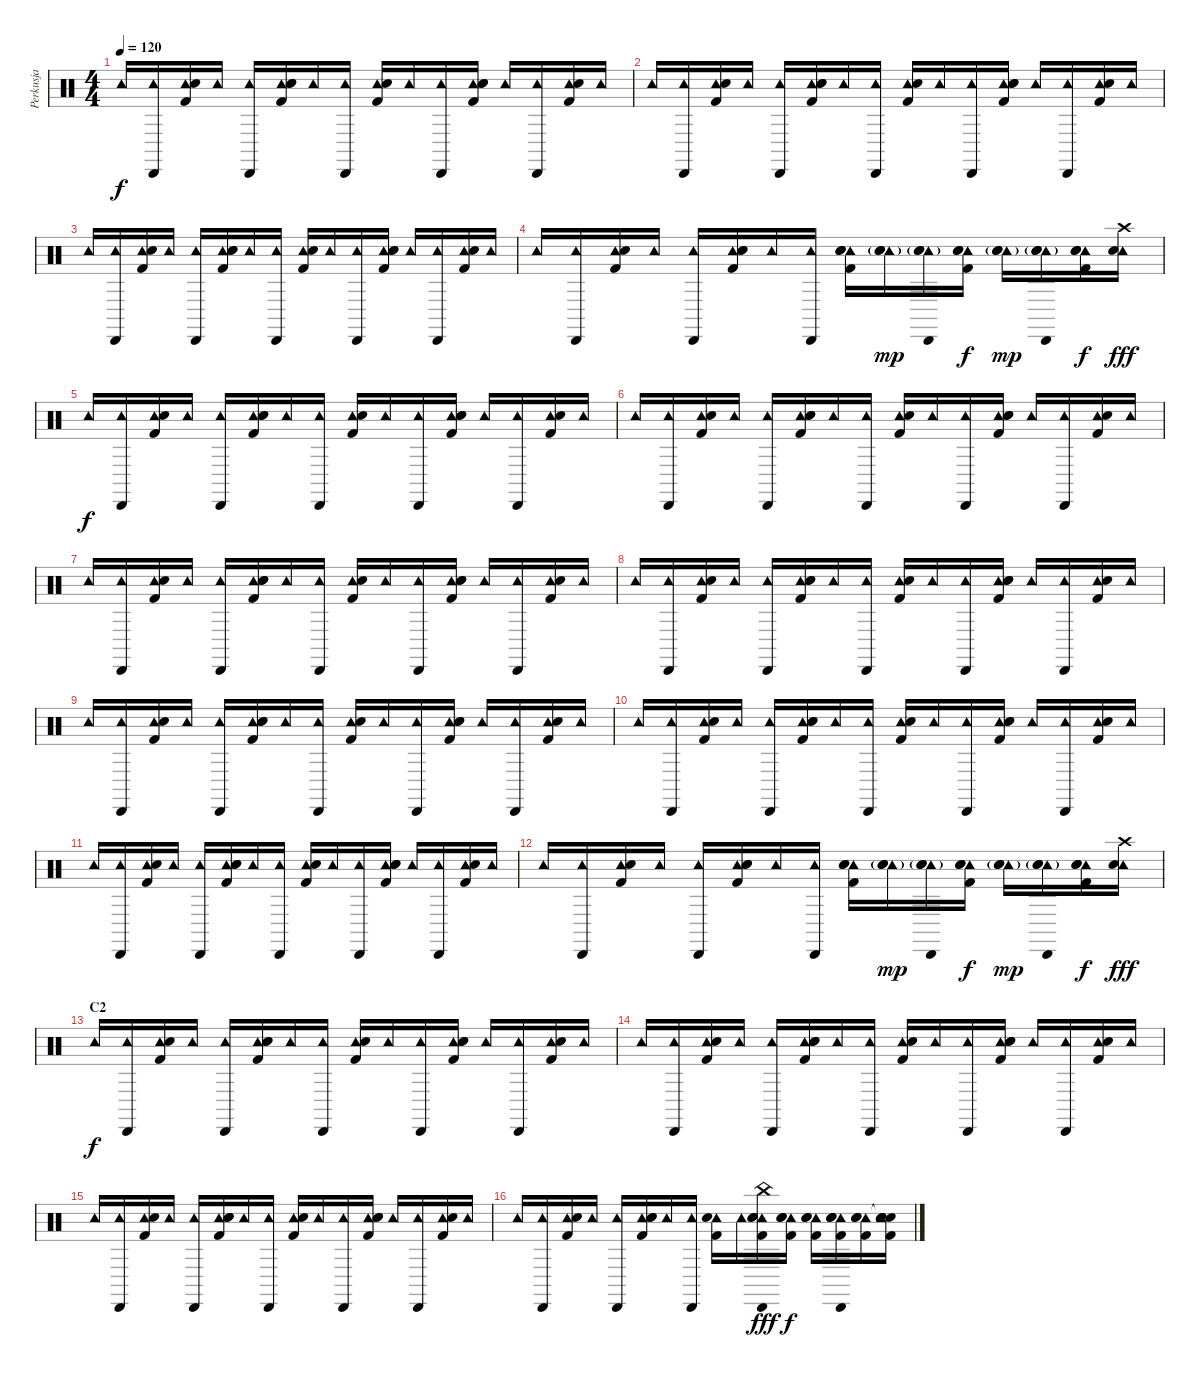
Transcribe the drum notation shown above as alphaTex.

\track ("Perkusja" "Perkusja") {instrument percussion}
\staff {score}
\articulation defaults
\ts (4 4)
\tempo 120
\clef neutral
\ks c "Tambourine (hit)".16{dy f}
("Tambourine (hit)" "Cabasa (hit)").16 ("Tambourine (hit)" "Kick (hit) 2" "Snare (hit) 2").16 "Tambourine (hit)".16 ("Tambourine (hit)" "Cabasa (hit)").16 ("Tambourine (hit)" "Kick (hit) 2" "Electric Snare (hit)" "Snare (hit) 2").16 "Tambourine (hit)".16 ("Tambourine (hit)" "Cabasa (hit)").16 ("Tambourine (hit)" "Kick (hit) 2" "Snare (hit) 2").16 "Tambourine (hit)".16 ("Tambourine (hit)" "Cabasa (hit)").16 ("Tambourine (hit)" "Kick (hit) 2" "Electric Snare (hit)" "Snare (hit) 2").16 "Tambourine (hit)".16 ("Tambourine (hit)" "Cabasa (hit)").16 ("Tambourine (hit)" "Kick (hit) 2" "Snare (hit) 2").16 "Tambourine (hit)".16 |
"Tambourine (hit)".16 ("Tambourine (hit)" "Cabasa (hit)").16 ("Tambourine (hit)" "Kick (hit) 2" "Snare (hit) 2").16 "Tambourine (hit)".16 ("Tambourine (hit)" "Cabasa (hit)").16 ("Tambourine (hit)" "Kick (hit) 2" "Electric Snare (hit)" "Snare (hit) 2").16 "Tambourine (hit)".16 ("Tambourine (hit)" "Cabasa (hit)").16 ("Tambourine (hit)" "Kick (hit) 2" "Snare (hit) 2").16 "Tambourine (hit)".16 ("Tambourine (hit)" "Cabasa (hit)").16 ("Tambourine (hit)" "Kick (hit) 2" "Electric Snare (hit)" "Snare (hit) 2").16 "Tambourine (hit)".16 ("Tambourine (hit)" "Cabasa (hit)").16 ("Tambourine (hit)" "Kick (hit) 2" "Snare (hit) 2").16 "Tambourine (hit)".16 |
"Tambourine (hit)".16 ("Tambourine (hit)" "Cabasa (hit)").16 ("Tambourine (hit)" "Kick (hit) 2" "Snare (hit) 2").16 "Tambourine (hit)".16 ("Tambourine (hit)" "Cabasa (hit)").16 ("Tambourine (hit)" "Kick (hit) 2" "Electric Snare (hit)" "Snare (hit) 2").16 "Tambourine (hit)".16 ("Tambourine (hit)" "Cabasa (hit)").16 ("Tambourine (hit)" "Kick (hit) 2" "Snare (hit) 2").16 "Tambourine (hit)".16 ("Tambourine (hit)" "Cabasa (hit)").16 ("Tambourine (hit)" "Kick (hit) 2" "Electric Snare (hit)" "Snare (hit) 2").16 "Tambourine (hit)".16 ("Tambourine (hit)" "Cabasa (hit)").16 ("Tambourine (hit)" "Kick (hit) 2" "Snare (hit) 2").16 "Tambourine (hit)".16 |
"Tambourine (hit)".16 ("Tambourine (hit)" "Cabasa (hit)").16 ("Tambourine (hit)" "Kick (hit) 2" "Snare (hit) 2").16 "Tambourine (hit)".16 ("Tambourine (hit)" "Cabasa (hit)").16 ("Tambourine (hit)" "Kick (hit) 2" "Electric Snare (hit)" "Snare (hit) 2").16 "Tambourine (hit)".16 ("Tambourine (hit)" "Cabasa (hit)").16 ("Tambourine (hit)" "Kick (hit) 2" "Snare (hit) 2" "Electric Snare (hit)").16 ("Tambourine (hit)" "Electric Snare (hit)"{g} "Electric Snare (hit)"{g}).16{dy mp} ("Tambourine (hit)" "Electric Snare (hit)"{g} "Electric Snare (hit)"{g} "Cabasa (hit)").16 ("Tambourine (hit)" "Kick (hit) 2" "Electric Snare (hit)" "Snare (hit) 2").16{dy f} ("Tambourine (hit)" "Electric Snare (hit)"{g} "Electric Snare (hit)"{g}).16{dy mp} ("Tambourine (hit)" "Electric Snare (hit)"{g} "Electric Snare (hit)"{g} "Cabasa (hit)").16 ("Tambourine (hit)" "Kick (hit) 2" "Snare (hit) 2" "Electric Snare (hit)").16{dy f} ("Tambourine (hit)" "Electric Snare (hit)" "Crash high (hit)").16{dy fff} |
"Tambourine (hit)".16{dy f} ("Tambourine (hit)" "Cabasa (hit)").16 ("Tambourine (hit)" "Kick (hit) 2" "Snare (hit) 2").16 "Tambourine (hit)".16 ("Tambourine (hit)" "Cabasa (hit)").16 ("Tambourine (hit)" "Kick (hit) 2" "Electric Snare (hit)" "Snare (hit) 2").16 "Tambourine (hit)".16 ("Tambourine (hit)" "Cabasa (hit)").16 ("Tambourine (hit)" "Kick (hit) 2" "Snare (hit) 2").16 "Tambourine (hit)".16 ("Tambourine (hit)" "Cabasa (hit)").16 ("Tambourine (hit)" "Kick (hit) 2" "Electric Snare (hit)" "Snare (hit) 2").16 "Tambourine (hit)".16 ("Tambourine (hit)" "Cabasa (hit)").16 ("Tambourine (hit)" "Kick (hit) 2" "Snare (hit) 2").16 "Tambourine (hit)".16 |
"Tambourine (hit)".16 ("Tambourine (hit)" "Cabasa (hit)").16 ("Tambourine (hit)" "Kick (hit) 2" "Snare (hit) 2").16 "Tambourine (hit)".16 ("Tambourine (hit)" "Cabasa (hit)").16 ("Tambourine (hit)" "Kick (hit) 2" "Electric Snare (hit)" "Snare (hit) 2").16 "Tambourine (hit)".16 ("Tambourine (hit)" "Cabasa (hit)").16 ("Tambourine (hit)" "Kick (hit) 2" "Snare (hit) 2").16 "Tambourine (hit)".16 ("Tambourine (hit)" "Cabasa (hit)").16 ("Tambourine (hit)" "Kick (hit) 2" "Electric Snare (hit)" "Snare (hit) 2").16 "Tambourine (hit)".16 ("Tambourine (hit)" "Cabasa (hit)").16 ("Tambourine (hit)" "Kick (hit) 2" "Snare (hit) 2").16 "Tambourine (hit)".16 |
"Tambourine (hit)".16 ("Tambourine (hit)" "Cabasa (hit)").16 ("Tambourine (hit)" "Kick (hit) 2" "Snare (hit) 2").16 "Tambourine (hit)".16 ("Tambourine (hit)" "Cabasa (hit)").16 ("Tambourine (hit)" "Kick (hit) 2" "Electric Snare (hit)" "Snare (hit) 2").16 "Tambourine (hit)".16 ("Tambourine (hit)" "Cabasa (hit)").16 ("Tambourine (hit)" "Kick (hit) 2" "Snare (hit) 2").16 "Tambourine (hit)".16 ("Tambourine (hit)" "Cabasa (hit)").16 ("Tambourine (hit)" "Kick (hit) 2" "Electric Snare (hit)" "Snare (hit) 2").16 "Tambourine (hit)".16 ("Tambourine (hit)" "Cabasa (hit)").16 ("Tambourine (hit)" "Kick (hit) 2" "Snare (hit) 2").16 "Tambourine (hit)".16 |
"Tambourine (hit)".16 ("Tambourine (hit)" "Cabasa (hit)").16 ("Tambourine (hit)" "Kick (hit) 2" "Snare (hit) 2").16 "Tambourine (hit)".16 ("Tambourine (hit)" "Cabasa (hit)").16 ("Tambourine (hit)" "Kick (hit) 2" "Electric Snare (hit)" "Snare (hit) 2").16 "Tambourine (hit)".16 ("Tambourine (hit)" "Cabasa (hit)").16 ("Tambourine (hit)" "Kick (hit) 2" "Snare (hit) 2").16 "Tambourine (hit)".16 ("Tambourine (hit)" "Cabasa (hit)").16 ("Tambourine (hit)" "Kick (hit) 2" "Electric Snare (hit)" "Snare (hit) 2").16 "Tambourine (hit)".16 ("Tambourine (hit)" "Cabasa (hit)").16 ("Tambourine (hit)" "Kick (hit) 2" "Snare (hit) 2").16 "Tambourine (hit)".16 |
"Tambourine (hit)".16 ("Tambourine (hit)" "Cabasa (hit)").16 ("Tambourine (hit)" "Kick (hit) 2" "Snare (hit) 2").16 "Tambourine (hit)".16 ("Tambourine (hit)" "Cabasa (hit)").16 ("Tambourine (hit)" "Kick (hit) 2" "Electric Snare (hit)" "Snare (hit) 2").16 "Tambourine (hit)".16 ("Tambourine (hit)" "Cabasa (hit)").16 ("Tambourine (hit)" "Kick (hit) 2" "Snare (hit) 2").16 "Tambourine (hit)".16 ("Tambourine (hit)" "Cabasa (hit)").16 ("Tambourine (hit)" "Kick (hit) 2" "Electric Snare (hit)" "Snare (hit) 2").16 "Tambourine (hit)".16 ("Tambourine (hit)" "Cabasa (hit)").16 ("Tambourine (hit)" "Kick (hit) 2" "Snare (hit) 2").16 "Tambourine (hit)".16 |
"Tambourine (hit)".16 ("Tambourine (hit)" "Cabasa (hit)").16 ("Tambourine (hit)" "Kick (hit) 2" "Snare (hit) 2").16 "Tambourine (hit)".16 ("Tambourine (hit)" "Cabasa (hit)").16 ("Tambourine (hit)" "Kick (hit) 2" "Electric Snare (hit)" "Snare (hit) 2").16 "Tambourine (hit)".16 ("Tambourine (hit)" "Cabasa (hit)").16 ("Tambourine (hit)" "Kick (hit) 2" "Snare (hit) 2").16 "Tambourine (hit)".16 ("Tambourine (hit)" "Cabasa (hit)").16 ("Tambourine (hit)" "Kick (hit) 2" "Electric Snare (hit)" "Snare (hit) 2").16 "Tambourine (hit)".16 ("Tambourine (hit)" "Cabasa (hit)").16 ("Tambourine (hit)" "Kick (hit) 2" "Snare (hit) 2").16 "Tambourine (hit)".16 |
"Tambourine (hit)".16 ("Tambourine (hit)" "Cabasa (hit)").16 ("Tambourine (hit)" "Kick (hit) 2" "Snare (hit) 2").16 "Tambourine (hit)".16 ("Tambourine (hit)" "Cabasa (hit)").16 ("Tambourine (hit)" "Kick (hit) 2" "Electric Snare (hit)" "Snare (hit) 2").16 "Tambourine (hit)".16 ("Tambourine (hit)" "Cabasa (hit)").16 ("Tambourine (hit)" "Kick (hit) 2" "Snare (hit) 2").16 "Tambourine (hit)".16 ("Tambourine (hit)" "Cabasa (hit)").16 ("Tambourine (hit)" "Kick (hit) 2" "Electric Snare (hit)" "Snare (hit) 2").16 "Tambourine (hit)".16 ("Tambourine (hit)" "Cabasa (hit)").16 ("Tambourine (hit)" "Kick (hit) 2" "Snare (hit) 2").16 "Tambourine (hit)".16 |
"Tambourine (hit)".16 ("Tambourine (hit)" "Cabasa (hit)").16 ("Tambourine (hit)" "Kick (hit) 2" "Snare (hit) 2").16 "Tambourine (hit)".16 ("Tambourine (hit)" "Cabasa (hit)").16 ("Tambourine (hit)" "Kick (hit) 2" "Electric Snare (hit)" "Snare (hit) 2").16 "Tambourine (hit)".16 ("Tambourine (hit)" "Cabasa (hit)").16 ("Tambourine (hit)" "Kick (hit) 2" "Snare (hit) 2" "Electric Snare (hit)").16 ("Tambourine (hit)" "Electric Snare (hit)"{g} "Electric Snare (hit)"{g}).16{dy mp} ("Tambourine (hit)" "Electric Snare (hit)"{g} "Electric Snare (hit)"{g} "Cabasa (hit)").16 ("Tambourine (hit)" "Kick (hit) 2" "Electric Snare (hit)" "Snare (hit) 2").16{dy f} ("Tambourine (hit)" "Electric Snare (hit)"{g} "Electric Snare (hit)"{g}).16{dy mp} ("Tambourine (hit)" "Electric Snare (hit)"{g} "Electric Snare (hit)"{g} "Cabasa (hit)").16 ("Tambourine (hit)" "Kick (hit) 2" "Snare (hit) 2" "Electric Snare (hit)").16{dy f} ("Tambourine (hit)" "Electric Snare (hit)" "Crash high (hit)").16{dy fff} |
\section ("" "C2")
"Tambourine (hit)".16{dy f} ("Tambourine (hit)" "Cabasa (hit)").16 ("Tambourine (hit)" "Kick (hit) 2" "Snare (hit) 2").16 "Tambourine (hit)".16 ("Tambourine (hit)" "Cabasa (hit)").16 ("Tambourine (hit)" "Kick (hit) 2" "Electric Snare (hit)" "Snare (hit) 2").16 "Tambourine (hit)".16 ("Tambourine (hit)" "Cabasa (hit)").16 ("Tambourine (hit)" "Kick (hit) 2" "Snare (hit) 2").16 "Tambourine (hit)".16 ("Tambourine (hit)" "Cabasa (hit)").16 ("Tambourine (hit)" "Kick (hit) 2" "Electric Snare (hit)" "Snare (hit) 2").16 "Tambourine (hit)".16 ("Tambourine (hit)" "Cabasa (hit)").16 ("Tambourine (hit)" "Kick (hit) 2" "Snare (hit) 2").16 "Tambourine (hit)".16 |
"Tambourine (hit)".16 ("Tambourine (hit)" "Cabasa (hit)").16 ("Tambourine (hit)" "Kick (hit) 2" "Snare (hit) 2").16 "Tambourine (hit)".16 ("Tambourine (hit)" "Cabasa (hit)").16 ("Tambourine (hit)" "Kick (hit) 2" "Electric Snare (hit)" "Snare (hit) 2").16 "Tambourine (hit)".16 ("Tambourine (hit)" "Cabasa (hit)").16 ("Tambourine (hit)" "Kick (hit) 2" "Snare (hit) 2").16 "Tambourine (hit)".16 ("Tambourine (hit)" "Cabasa (hit)").16 ("Tambourine (hit)" "Kick (hit) 2" "Electric Snare (hit)" "Snare (hit) 2").16 "Tambourine (hit)".16 ("Tambourine (hit)" "Cabasa (hit)").16 ("Tambourine (hit)" "Kick (hit) 2" "Snare (hit) 2").16 "Tambourine (hit)".16 |
"Tambourine (hit)".16 ("Tambourine (hit)" "Cabasa (hit)").16 ("Tambourine (hit)" "Kick (hit) 2" "Snare (hit) 2").16 "Tambourine (hit)".16 ("Tambourine (hit)" "Cabasa (hit)").16 ("Tambourine (hit)" "Kick (hit) 2" "Electric Snare (hit)" "Snare (hit) 2").16 "Tambourine (hit)".16 ("Tambourine (hit)" "Cabasa (hit)").16 ("Tambourine (hit)" "Kick (hit) 2" "Snare (hit) 2").16 "Tambourine (hit)".16 ("Tambourine (hit)" "Cabasa (hit)").16 ("Tambourine (hit)" "Kick (hit) 2" "Electric Snare (hit)" "Snare (hit) 2").16 "Tambourine (hit)".16 ("Tambourine (hit)" "Cabasa (hit)").16 ("Tambourine (hit)" "Kick (hit) 2" "Snare (hit) 2").16 "Tambourine (hit)".16 |
"Tambourine (hit)".16 ("Tambourine (hit)" "Cabasa (hit)").16 ("Tambourine (hit)" "Kick (hit) 2" "Snare (hit) 2").16 "Tambourine (hit)".16 ("Tambourine (hit)" "Cabasa (hit)").16 ("Tambourine (hit)" "Kick (hit) 2" "Electric Snare (hit)" "Snare (hit) 2").16 "Tambourine (hit)".16 ("Tambourine (hit)" "Cabasa (hit)").16 ("Tambourine (hit)" "Kick (hit) 2" "Snare (hit) 2").16 "Tambourine (hit)".16 ("China (hit)" "Tambourine (hit)" "Kick (hit) 2" "Electric Snare (hit)" "Snare (hit) 2" "Cabasa (hit)").16{dy fff} ("Tambourine (hit)" "Kick (hit) 2" "Electric Snare (hit)" "Snare (hit) 2").16{dy f} ("Tambourine (hit)" "Kick (hit) 2" "Electric Snare (hit)" "Snare (hit) 2").16 ("Tambourine (hit)" "Kick (hit) 2" "Electric Snare (hit)" "Snare (hit) 2" "Cabasa (hit)").16 ("Tambourine (hit)" "Kick (hit) 2" "Electric Snare (hit)" "Snare (hit) 2").16 ("Snare (hit)"{t} "Tambourine (hit)" "Kick (hit) 2" "Electric Snare (hit)" "Snare (hit) 2").16
